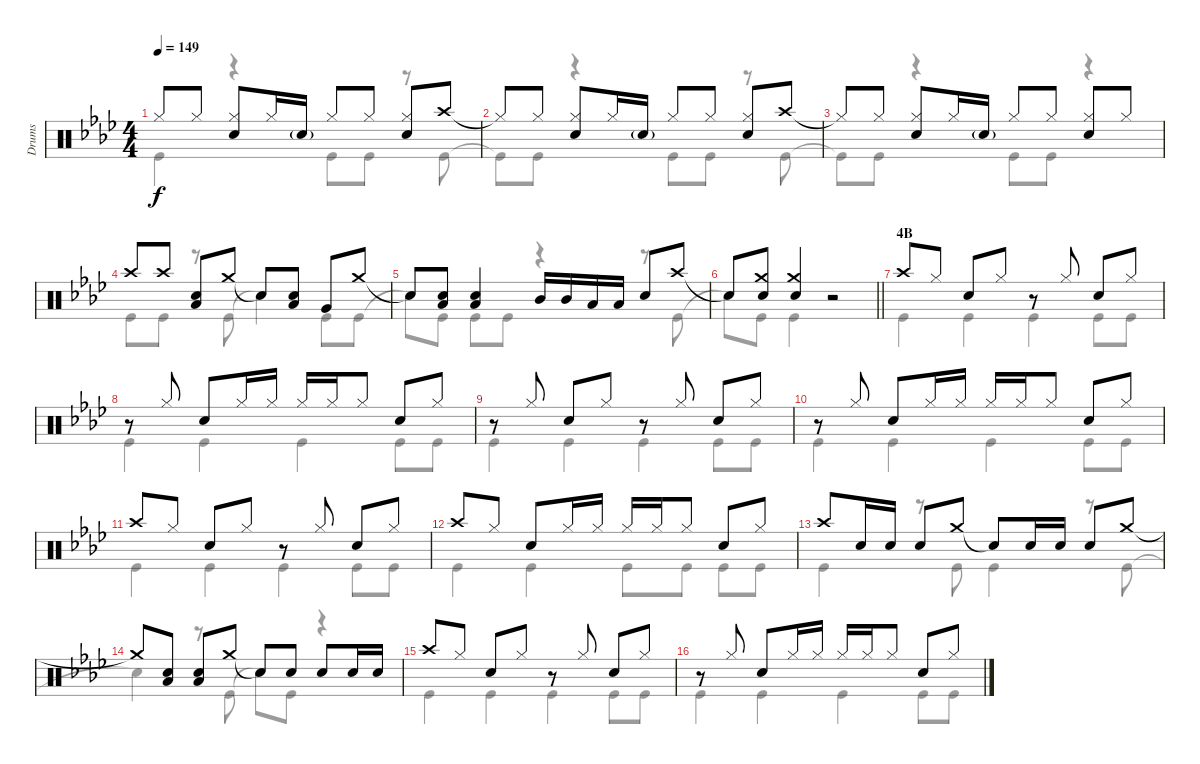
\track ("Drums" "Drums") {instrument percussion}
\staff {score}
\articulation defaults
\voice
\ts (4 4)
\tempo 149
\clef neutral
\ks ab "Hi-Hat (closed)".8{dy f} "Hi-Hat (closed)".8
("Hi-Hat (closed)" "Snare (hit) 2").8 "Hi-Hat (closed)".16 "Snare (hit) 2"{g}.16 "Hi-Hat (closed)".8 "Hi-Hat (closed)".8 ("Hi-Hat (closed)" "Snare (hit) 2").8 "Crash high (hit)".8 |
"Hi-Hat (closed)"{t}.8 "Hi-Hat (closed)".8 ("Hi-Hat (closed)" "Snare (hit) 2").8 "Hi-Hat (closed)".16 "Snare (hit) 2"{g}.16 "Hi-Hat (closed)".8 "Hi-Hat (closed)".8 ("Hi-Hat (closed)" "Snare (hit) 2").8 "Crash high (hit)".8 |
"Hi-Hat (closed)"{t}.8 "Hi-Hat (closed)".8 ("Hi-Hat (closed)" "Snare (hit) 2").8 "Hi-Hat (closed)".16 "Snare (hit) 2"{g}.16 "Hi-Hat (closed)".8 "Hi-Hat (closed)".8 ("Hi-Hat (closed)" "Snare (hit) 2").8 "Hi-Hat (closed)".8 |
"Crash high (hit)".8 "Crash high (hit)".8 ("Snare (hit) 2" "Low Tom (hit)").8 "Crash medium (hit)".8 "Snare (hit)"{t}.8 ("Snare (hit) 2" "Low Tom (hit)").8 "Very Low Tom (hit)".8 "Crash medium (hit)".8 |
"Snare (hit)"{t}.8 ("Low Tom (hit)" "Snare (hit) 2").8 ("Low Tom (hit)" "Snare (hit) 2").4 "Mid Tom (hit)".16 "Mid Tom (hit)".16 "Low Tom (hit)".16 "Low Tom (hit)".16 "Snare (hit) 2".8 "Crash high (hit)".8 |
\barLineRight lightlight "Snare (hit)"{t}.8
("Crash medium (hit)" "Snare (hit) 2").8 ("Crash medium (hit)" "Snare (hit) 2").4 r.2 |
\section ("" "4B")
"Crash high (hit)".8 "Hi-Hat (closed)".8 "Snare (hit) 2".8 "Hi-Hat (closed)".8 r.8 "Hi-Hat (closed)".8 "Snare (hit) 2".8 "Hi-Hat (closed)".8 |
r.8 "Hi-Hat (closed)".8 "Snare (hit) 2".8 "Hi-Hat (closed)".16 "Hi-Hat (closed)".16 "Hi-Hat (closed)".16 "Hi-Hat (closed)".16 "Hi-Hat (closed)".8 "Snare (hit) 2".8 "Hi-Hat (closed)".8 |
r.8 "Hi-Hat (closed)".8 "Snare (hit) 2".8 "Hi-Hat (closed)".8 r.8 "Hi-Hat (closed)".8 "Snare (hit) 2".8 "Hi-Hat (closed)".8 |
r.8 "Hi-Hat (closed)".8 "Snare (hit) 2".8 "Hi-Hat (closed)".16 "Hi-Hat (closed)".16 "Hi-Hat (closed)".16 "Hi-Hat (closed)".16 "Hi-Hat (closed)".8 "Snare (hit) 2".8 "Hi-Hat (closed)".8 |
"Crash high (hit)".8 "Hi-Hat (closed)".8 "Snare (hit) 2".8 "Hi-Hat (closed)".8 r.8 "Hi-Hat (closed)".8 "Snare (hit) 2".8 "Hi-Hat (closed)".8 |
"Crash high (hit)".8 "Hi-Hat (closed)".8 "Snare (hit) 2".8 "Hi-Hat (closed)".16 "Hi-Hat (closed)".16 "Hi-Hat (closed)".16 "Hi-Hat (closed)".16 "Hi-Hat (closed)".8 "Snare (hit) 2".8 "Hi-Hat (closed)".8 |
"Crash high (hit)".8 "Snare (hit) 2".16 "Snare (hit) 2".16 "Snare (hit) 2".8 "Crash medium (hit)".8 "Snare (hit)"{t}.8 "Snare (hit) 2".16 "Snare (hit) 2".16 "Snare (hit) 2".8 "Crash medium (hit)".8 |
"Crash medium (hit)"{t}.8 ("Snare (hit) 2" "Low Tom (hit)").8 ("Snare (hit) 2" "Low Tom (hit)").8 "Crash medium (hit)".8 "Snare (hit)"{t}.8 "Snare (hit) 2".8 "Snare (hit) 2".8 "Snare (hit) 2".16 "Snare (hit) 2".16 |
"Crash high (hit)".8 "Hi-Hat (closed)".8 "Snare (hit) 2".8 "Hi-Hat (closed)".8 r.8 "Hi-Hat (closed)".8 "Snare (hit) 2".8 "Hi-Hat (closed)".8 |
r.8 "Hi-Hat (closed)".8 "Snare (hit) 2".8 "Hi-Hat (closed)".16 "Hi-Hat (closed)".16 "Hi-Hat (closed)".16 "Hi-Hat (closed)".16 "Hi-Hat (closed)".8 "Snare (hit) 2".8 "Hi-Hat (closed)".8
\voice
\clef neutral
\ottava regular
\simile none
\ks ab "Kick (hit)".4{dy f}
r.4 "Kick (hit)".8 "Kick (hit)".8 r.8 "Kick (hit)".8 |
"Kick (hit)"{t}.8 "Kick (hit)".8 r.4 "Kick (hit)".8 "Kick (hit)".8 r.8 "Kick (hit)".8 |
"Kick (hit)"{t}.8 "Kick (hit)".8 r.4 "Kick (hit)".8 "Kick (hit)".8 r.4 |
"Kick (hit)".8 "Kick (hit)".8 r.8 "Kick (hit)".8 "Snare (hit)"{t}.4 "Kick (hit)".8 "Kick (hit)".8 |
"Snare (hit)"{t}.8 "Kick (hit)".8 "Kick (hit)".8 "Kick (hit)".8 r.4 r.8 "Kick (hit)".8 |
\barLineRight lightlight "Snare (hit)"{t}.8 "Kick (hit)".8 "Kick (hit)".4
r.2 |
"Kick (hit)".4 "Kick (hit)".4 "Kick (hit)".4 "Kick (hit)".8 "Kick (hit)".8 |
"Kick (hit)".4 "Kick (hit)".4 "Kick (hit)".4 "Kick (hit)".8 "Kick (hit)".8 |
"Kick (hit)".4 "Kick (hit)".4 "Kick (hit)".4 "Kick (hit)".8 "Kick (hit)".8 |
"Kick (hit)".4 "Kick (hit)".4 "Kick (hit)".4 "Kick (hit)".8 "Kick (hit)".8 |
"Kick (hit)".4 "Kick (hit)".4 "Kick (hit)".4 "Kick (hit)".8 "Kick (hit)".8 |
"Kick (hit)".4 "Kick (hit)".4 "Kick (hit)".8 "Kick (hit)".8 "Kick (hit)".8 "Kick (hit)".8 |
"Kick (hit)".4 r.8 "Kick (hit)".8 "Kick (hit)".4 r.8 "Kick (hit)".8 |
"Snare (hit)"{t}.4 r.8 "Kick (hit)".8 "Snare (hit)"{t}.8 "Kick (hit)".8 r.4 |
"Kick (hit)".4 "Kick (hit)".4 "Kick (hit)".4 "Kick (hit)".8 "Kick (hit)".8 |
"Kick (hit)".4 "Kick (hit)".4 "Kick (hit)".4 "Kick (hit)".8 "Kick (hit)".8
